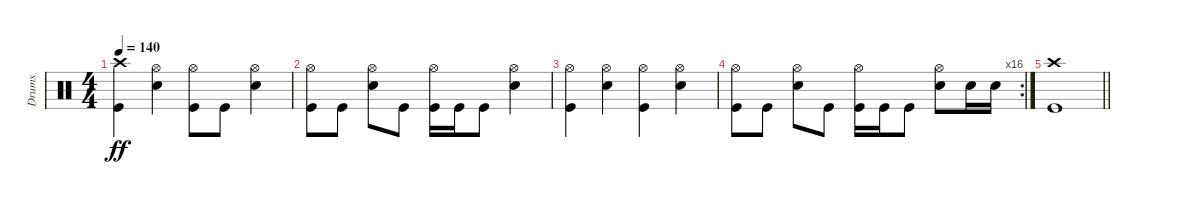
\track ("Drums" "Drums") {instrument percussion}
\staff {score}
\articulation defaults
\ts (4 4)
\tempo 140
\clef neutral
\ks c
("Crash high (hit)" "Kick (hit)").4{dy ff} ("Hi-Hat (open)" "Snare (hit) 2").4 ("Hi-Hat (open)" "Kick (hit)").8 "Kick (hit)".8 ("Hi-Hat (open)" "Snare (hit) 2").4 |
("Hi-Hat (open)" "Kick (hit)").8 "Kick (hit)".8 ("Hi-Hat (open)" "Snare (hit) 2").8 "Kick (hit)".8 ("Hi-Hat (open)" "Kick (hit)").16 "Kick (hit)".16 "Kick (hit)".8 ("Hi-Hat (open)" "Snare (hit) 2").4 |
("Hi-Hat (open)" "Kick (hit)").4 ("Hi-Hat (open)" "Snare (hit) 2").4 ("Hi-Hat (open)" "Kick (hit)").4 ("Hi-Hat (open)" "Snare (hit) 2").4 |
\rc 16
("Hi-Hat (open)" "Kick (hit)").8 "Kick (hit)".8 ("Hi-Hat (open)" "Snare (hit) 2").8 "Kick (hit)".8 ("Hi-Hat (open)" "Kick (hit)").16 "Kick (hit)".16 "Kick (hit)".8 ("Hi-Hat (open)" "Snare (hit) 2").8 "Snare (hit) 2".16 "Snare (hit) 2".16 |
\barLineRight lightlight
("Crash high (hit)" "Kick (hit)").1
